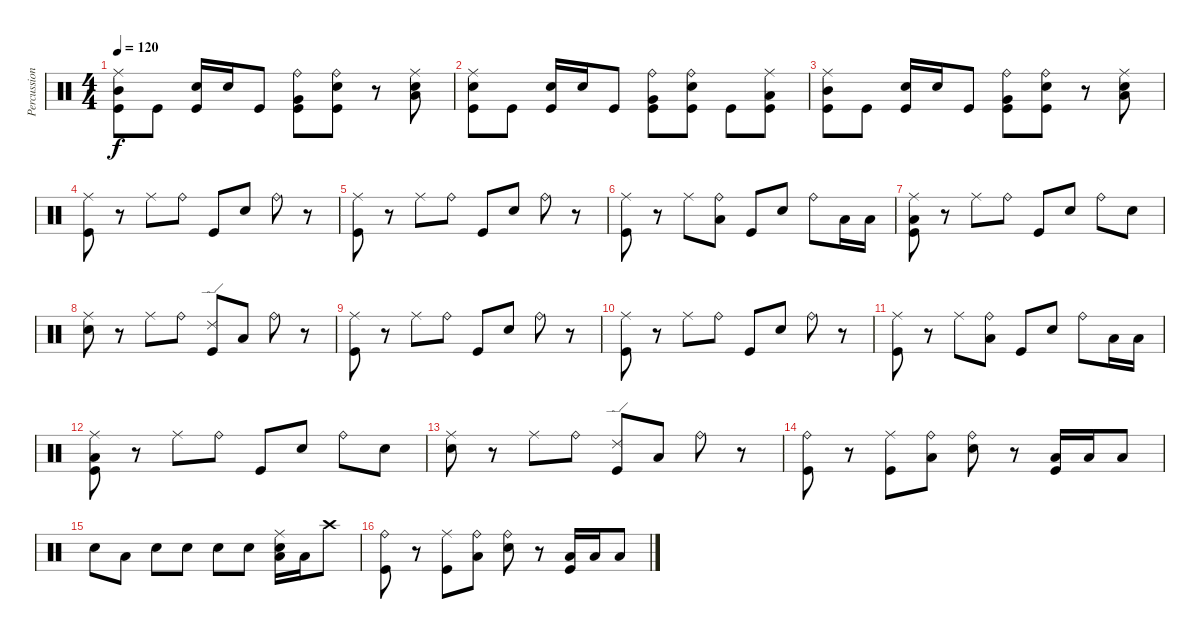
\track ("Percussion" "Percussion") {instrument percussion}
\staff {score}
\articulation defaults
\ts (4 4)
\tempo 120
\clef neutral
\ks c
("Ride (middle)" "Mid Tom (hit)" "Kick (hit)").8{dy f} "Kick (hit)".8 ("Electric Snare (hit)" "Kick (hit)").16 "Electric Snare (hit)".16 "Kick (hit)".8 ("Ride (bell)" "Very Low Tom (hit)" "Kick (hit)").8 ("Ride (bell)" "Electric Snare (hit)" "Kick (hit)").8 r.8 ("Ride (middle)" "Low Tom (hit)" "Electric Snare (hit)").8 |
("Ride (middle)" "Electric Snare (hit)" "Kick (hit)").8 "Kick (hit)".8 ("Electric Snare (hit)" "Kick (hit)").16 "Electric Snare (hit)".16 "Kick (hit)".8 ("Ride (bell)" "Very Low Tom (hit)" "Kick (hit)").8 ("Ride (bell)" "Electric Snare (hit)" "Kick (hit)").8 "Kick (hit)".8 ("Ride (middle)" "Low Tom (hit)" "Kick (hit)").8 |
("Ride (middle)" "Mid Tom (hit)" "Kick (hit)").8 "Kick (hit)".8 ("Electric Snare (hit)" "Kick (hit)").16 "Electric Snare (hit)".16 "Kick (hit)".8 ("Ride (bell)" "Very Low Tom (hit)" "Kick (hit)").8 ("Ride (bell)" "Electric Snare (hit)" "Kick (hit)").8 r.8 ("Ride (middle)" "Low Tom (hit)" "Electric Snare (hit)").8 |
("Ride (middle)" "Kick (hit)").8 r.8 "Ride (middle)".8 "Ride (bell)".8 "Kick (hit)".8 "Electric Snare (hit)".8 "Ride (bell)".8 r.8 |
("Ride (middle)" "Kick (hit)").8 r.8 "Ride (middle)".8 "Ride (bell)".8 "Kick (hit)".8 "Electric Snare (hit)".8 "Ride (bell)".8 r.8 |
("Ride (middle)" "Kick (hit)").8 r.8 "Ride (middle)".8 ("Ride (bell)" "Low Tom (hit)").8 "Kick (hit)".8 "Electric Snare (hit)".8 "Ride (bell)".8 "Low Tom (hit)".16 "Low Tom (hit)".16 |
("Ride (middle)" "Low Tom (hit)" "Kick (hit)").8 r.8 "Ride (middle)".8 "Ride (bell)".8 "Kick (hit)".8 "Electric Snare (hit)".8 "Ride (bell)".8 "Electric Snare (hit)".8 |
("Ride (middle)" "Electric Snare (hit)").8 r.8 "Ride (middle)".8 "Ride (bell)".8 ("Ride (edge) 2" "Kick (hit)").8 "Low Tom (hit)".8 "Ride (bell)".8 r.8 |
("Ride (middle)" "Kick (hit)").8 r.8 "Ride (middle)".8 "Ride (bell)".8 "Kick (hit)".8 "Electric Snare (hit)".8 "Ride (bell)".8 r.8 |
("Ride (middle)" "Kick (hit)").8 r.8 "Ride (middle)".8 "Ride (bell)".8 "Kick (hit)".8 "Electric Snare (hit)".8 "Ride (bell)".8 r.8 |
("Ride (middle)" "Kick (hit)").8 r.8 "Ride (middle)".8 ("Ride (bell)" "Low Tom (hit)").8 "Kick (hit)".8 "Electric Snare (hit)".8 "Ride (bell)".8 "Low Tom (hit)".16 "Low Tom (hit)".16 |
("Ride (middle)" "Low Tom (hit)" "Kick (hit)").8 r.8 "Ride (middle)".8 "Ride (bell)".8 "Kick (hit)".8 "Electric Snare (hit)".8 "Ride (bell)".8 "Electric Snare (hit)".8 |
("Ride (middle)" "Electric Snare (hit)").8 r.8 "Ride (middle)".8 "Ride (bell)".8 ("Ride (edge) 2" "Kick (hit)").8 "Low Tom (hit)".8 "Ride (bell)".8 r.8 |
("Ride (bell)" "Kick (hit)").8 r.8 ("Ride (middle)" "Kick (hit)").8 ("Ride (bell)" "Low Tom (hit)").8 ("Ride (bell)" "Electric Snare (hit)").8 r.8 ("Low Tom (hit)" "Kick (hit)").16 "Low Tom (hit)".16 "Low Tom (hit)".8 |
"Electric Snare (hit)".8 "Low Tom (hit)".8 "Electric Snare (hit)".8 "Electric Snare (hit)".8 "Electric Snare (hit)".8 "Electric Snare (hit)".8 ("Ride (middle)" "Low Tom (hit)" "Electric Snare (hit)").16 "Low Tom (hit)".16 "Crash high (hit)".8 |
("Ride (bell)" "Kick (hit)").8 r.8 ("Ride (middle)" "Kick (hit)").8 ("Ride (bell)" "Low Tom (hit)").8 ("Ride (bell)" "Electric Snare (hit)").8 r.8 ("Low Tom (hit)" "Kick (hit)").16 "Low Tom (hit)".16 "Low Tom (hit)".8
